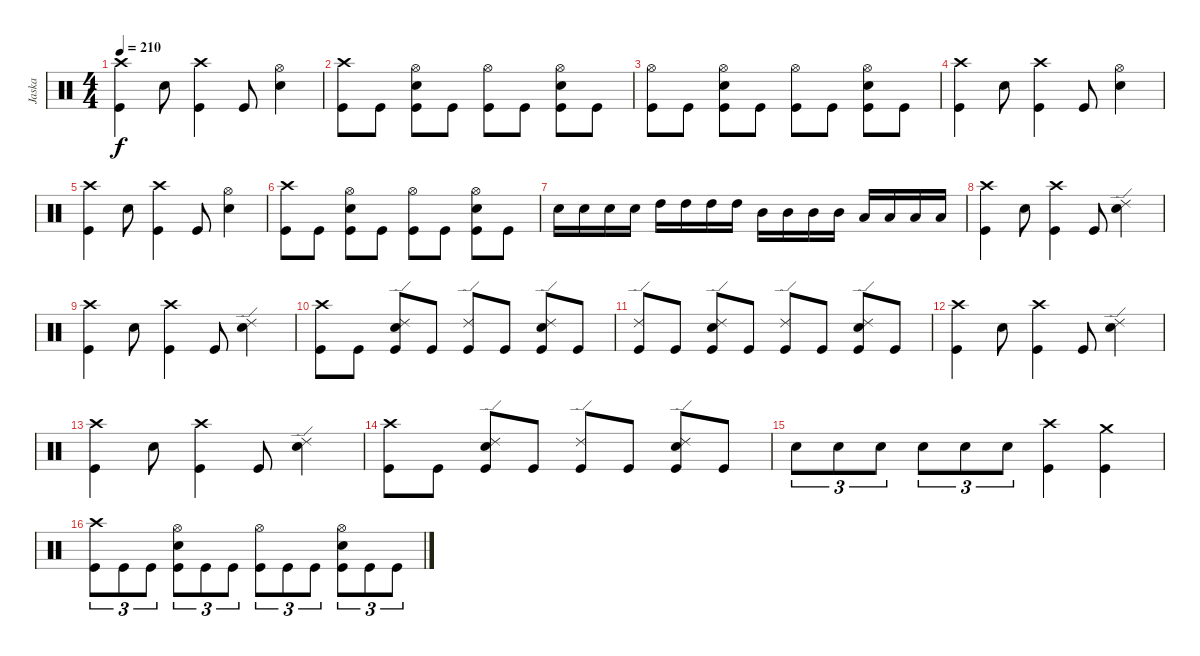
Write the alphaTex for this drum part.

\track ("Jaska" "Jaska") {instrument percussion}
\staff {score}
\articulation defaults
\ts (4 4)
\tempo 210
\clef neutral
\ks c
("Crash high (hit)" "Kick (hit)").4{dy f} "Electric Snare (hit)".8 ("Crash high (hit)" "Kick (hit)").4 "Kick (hit)".8 ("Hi-Hat (open)" "Electric Snare (hit)").4 |
("Crash high (hit)" "Kick (hit)").8 "Kick (hit)".8 ("Hi-Hat (open)" "Electric Snare (hit)" "Kick (hit)").8 "Kick (hit)".8 ("Hi-Hat (open)" "Kick (hit)").8 "Kick (hit)".8 ("Hi-Hat (open)" "Electric Snare (hit)" "Kick (hit)").8 "Kick (hit)".8 |
("Hi-Hat (open)" "Kick (hit)").8 "Kick (hit)".8 ("Hi-Hat (open)" "Electric Snare (hit)" "Kick (hit)").8 "Kick (hit)".8 ("Hi-Hat (open)" "Kick (hit)").8 "Kick (hit)".8 ("Hi-Hat (open)" "Electric Snare (hit)" "Kick (hit)").8 "Kick (hit)".8 |
("Crash high (hit)" "Kick (hit)").4 "Electric Snare (hit)".8 ("Crash high (hit)" "Kick (hit)").4 "Kick (hit)".8 ("Hi-Hat (open)" "Electric Snare (hit)").4 |
("Crash high (hit)" "Kick (hit)").4 "Electric Snare (hit)".8 ("Crash high (hit)" "Kick (hit)").4 "Kick (hit)".8 ("Hi-Hat (open)" "Electric Snare (hit)").4 |
("Crash high (hit)" "Kick (hit)").8 "Kick (hit)".8 ("Hi-Hat (open)" "Electric Snare (hit)" "Kick (hit)").8 "Kick (hit)".8 ("Hi-Hat (open)" "Kick (hit)").8 "Kick (hit)".8 ("Hi-Hat (open)" "Electric Snare (hit)" "Kick (hit)").8 "Kick (hit)".8 |
"Electric Snare (hit)".16 "Electric Snare (hit)".16 "Electric Snare (hit)".16 "Electric Snare (hit)".16 "High Tom (hit)".16 "High Tom (hit)".16 "High Tom (hit)".16 "High Tom (hit)".16 "Mid Tom (hit)".16 "Mid Tom (hit)".16 "Mid Tom (hit)".16 "Mid Tom (hit)".16 "Low Tom (hit)".16 "Low Tom (hit)".16 "Low Tom (hit)".16 "Low Tom (hit)".16 |
("Crash high (hit)" "Kick (hit)").4 "Electric Snare (hit)".8 ("Crash high (hit)" "Kick (hit)").4 "Kick (hit)".8 ("Ride (edge) 2" "Electric Snare (hit)").4 |
("Crash high (hit)" "Kick (hit)").4 "Electric Snare (hit)".8 ("Crash high (hit)" "Kick (hit)").4 "Kick (hit)".8 ("Ride (edge) 2" "Electric Snare (hit)").4 |
("Crash high (hit)" "Kick (hit)").8 "Kick (hit)".8 ("Ride (edge) 2" "Electric Snare (hit)" "Kick (hit)").8 "Kick (hit)".8 ("Ride (edge) 2" "Kick (hit)").8 "Kick (hit)".8 ("Ride (edge) 2" "Electric Snare (hit)" "Kick (hit)").8 "Kick (hit)".8 |
("Ride (edge) 2" "Kick (hit)").8 "Kick (hit)".8 ("Ride (edge) 2" "Electric Snare (hit)" "Kick (hit)").8 "Kick (hit)".8 ("Ride (edge) 2" "Kick (hit)").8 "Kick (hit)".8 ("Ride (edge) 2" "Electric Snare (hit)" "Kick (hit)").8 "Kick (hit)".8 |
("Crash high (hit)" "Kick (hit)").4 "Electric Snare (hit)".8 ("Crash high (hit)" "Kick (hit)").4 "Kick (hit)".8 ("Ride (edge) 2" "Electric Snare (hit)").4 |
("Crash high (hit)" "Kick (hit)").4 "Electric Snare (hit)".8 ("Crash high (hit)" "Kick (hit)").4 "Kick (hit)".8 ("Ride (edge) 2" "Electric Snare (hit)").4 |
("Crash high (hit)" "Kick (hit)").8 "Kick (hit)".8 ("Ride (edge) 2" "Electric Snare (hit)" "Kick (hit)").8 "Kick (hit)".8 ("Ride (edge) 2" "Kick (hit)").8 "Kick (hit)".8 ("Ride (edge) 2" "Electric Snare (hit)" "Kick (hit)").8 "Kick (hit)".8 |
"Electric Snare (hit)".8{tu (3 2)} "Electric Snare (hit)".8{tu (3 2)} "Electric Snare (hit)".8{tu (3 2)} "Electric Snare (hit)".8{tu (3 2)} "Electric Snare (hit)".8{tu (3 2)} "Electric Snare (hit)".8{tu (3 2)} ("Crash high (hit)" "Kick (hit)").4 ("Crash medium (hit)" "Kick (hit)").4 |
("Crash high (hit)" "Kick (hit)").8{tu (3 2)} "Kick (hit)".8{tu (3 2)} "Kick (hit)".8{tu (3 2)} ("Hi-Hat (open)" "Electric Snare (hit)" "Kick (hit)").8{tu (3 2)} "Kick (hit)".8{tu (3 2)} "Kick (hit)".8{tu (3 2)} ("Hi-Hat (open)" "Kick (hit)").8{tu (3 2)} "Kick (hit)".8{tu (3 2)} "Kick (hit)".8{tu (3 2)} ("Hi-Hat (open)" "Electric Snare (hit)" "Kick (hit)").8{tu (3 2)} "Kick (hit)".8{tu (3 2)} "Kick (hit)".8{tu (3 2)}
